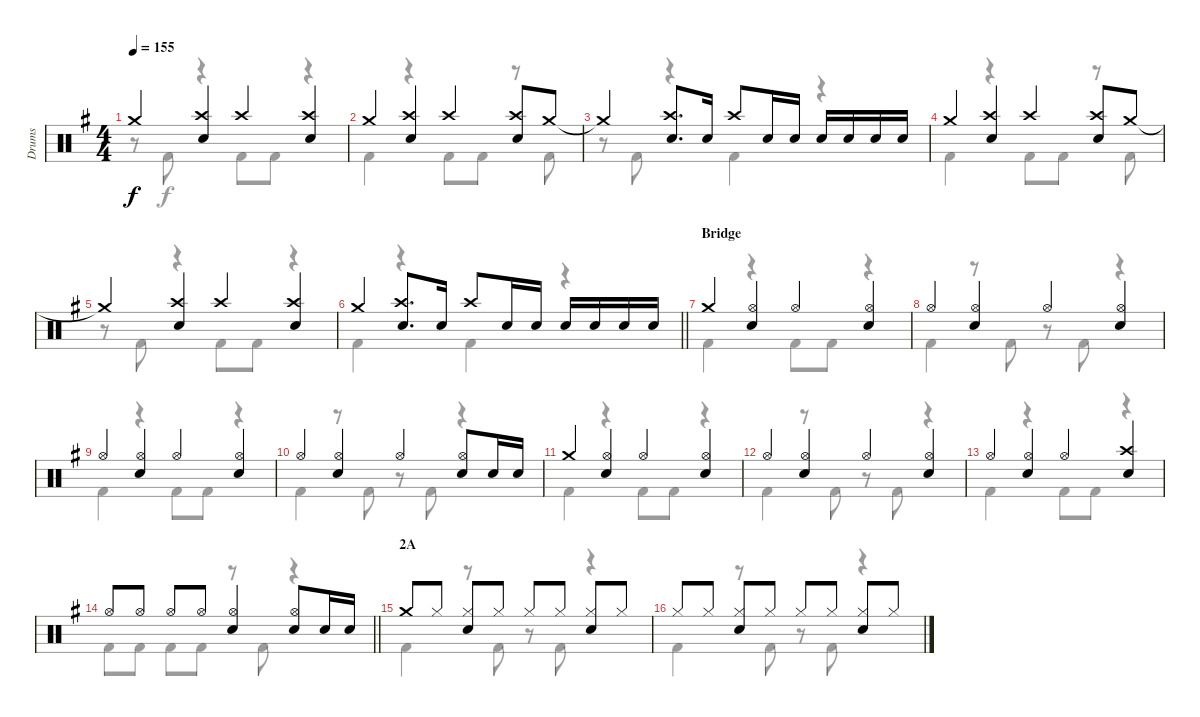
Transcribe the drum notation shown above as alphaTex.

\track ("Drums" "Drums") {instrument percussion}
\staff {score}
\articulation defaults
\voice
\ts (4 4)
\tempo 155
\clef neutral
\ks g "Crash medium (hit)"{t}.4{dy f}
("Crash high (hit)" "Electric Snare (hit)").4 "Crash high (hit)".4 ("Crash high (hit)" "Electric Snare (hit)").4 |
"Crash medium (hit)".4 ("Crash high (hit)" "Electric Snare (hit)").4 "Crash high (hit)".4 ("Crash high (hit)" "Electric Snare (hit)").8 "Crash medium (hit)".8 |
"Crash medium (hit)"{t}.4 ("Crash high (hit)" "Electric Snare (hit)").8{d} "Electric Snare (hit)".16 "Crash high (hit)".8 "Electric Snare (hit)".16 "Electric Snare (hit)".16 "Electric Snare (hit)".16 "Electric Snare (hit)".16 "Electric Snare (hit)".16 "Electric Snare (hit)".16 |
"Crash medium (hit)".4 ("Crash high (hit)" "Electric Snare (hit)").4 "Crash high (hit)".4 ("Crash high (hit)" "Electric Snare (hit)").8 "Crash medium (hit)".8 |
"Crash medium (hit)"{t}.4 ("Crash high (hit)" "Electric Snare (hit)").4 "Crash high (hit)".4 ("Crash high (hit)" "Electric Snare (hit)").4 |
\barLineRight lightlight "Crash medium (hit)".4
("Crash high (hit)" "Electric Snare (hit)").8{d} "Electric Snare (hit)".16 "Crash high (hit)".8 "Electric Snare (hit)".16 "Electric Snare (hit)".16 "Electric Snare (hit)".16 "Electric Snare (hit)".16 "Electric Snare (hit)".16 "Electric Snare (hit)".16 |
\section ("" "Bridge")
"Crash medium (hit)".4 ("Hi-Hat (open)" "Electric Snare (hit)").4 "Hi-Hat (open)".4 ("Hi-Hat (open)" "Electric Snare (hit)").4 |
"Hi-Hat (open)".4 ("Hi-Hat (open)" "Electric Snare (hit)").4 "Hi-Hat (open)".4 ("Hi-Hat (open)" "Electric Snare (hit)").4 |
"Hi-Hat (open)".4 ("Hi-Hat (open)" "Electric Snare (hit)").4 "Hi-Hat (open)".4 ("Hi-Hat (open)" "Electric Snare (hit)").4 |
"Hi-Hat (open)".4 ("Hi-Hat (open)" "Electric Snare (hit)").4 "Hi-Hat (open)".4 ("Hi-Hat (open)" "Electric Snare (hit)").8 "Electric Snare (hit)".16 "Electric Snare (hit)".16 |
"Crash medium (hit)".4 ("Hi-Hat (open)" "Electric Snare (hit)").4 "Hi-Hat (open)".4 ("Hi-Hat (open)" "Electric Snare (hit)").4 |
"Hi-Hat (open)".4 ("Hi-Hat (open)" "Electric Snare (hit)").4 "Hi-Hat (open)".4 ("Hi-Hat (open)" "Electric Snare (hit)").4 |
"Hi-Hat (open)".4 ("Hi-Hat (open)" "Electric Snare (hit)").4 "Hi-Hat (open)".4 ("Crash high (hit)" "Electric Snare (hit)").4 |
\barLineRight lightlight "Hi-Hat (open)".8 "Hi-Hat (open)".8 "Hi-Hat (open)".8 "Hi-Hat (open)".8
("Hi-Hat (open)" "Electric Snare (hit)").4 ("Hi-Hat (open)" "Electric Snare (hit)").8 "Electric Snare (hit)".16 "Electric Snare (hit)".16 |
\section ("" "2A")
"Crash medium (hit)".8 "Hi-Hat (closed)".8 ("Hi-Hat (closed)" "Electric Snare (hit)").8 "Hi-Hat (closed)".8 "Hi-Hat (closed)".8 "Hi-Hat (closed)".8 ("Hi-Hat (closed)" "Electric Snare (hit)").8 "Hi-Hat (closed)".8 |
"Hi-Hat (closed)".8 "Hi-Hat (closed)".8 ("Hi-Hat (closed)" "Electric Snare (hit)").8 "Hi-Hat (closed)".8 "Hi-Hat (closed)".8 "Hi-Hat (closed)".8 ("Hi-Hat (closed)" "Electric Snare (hit)").8 "Hi-Hat (closed)".8
\voice
\clef neutral
\ottava regular
\simile none
\ks g
r.8{dy f} "Kick (hit) 2".8 r.4 "Kick (hit) 2".8 "Kick (hit) 2".8 r.4 |
"Kick (hit) 2".4 r.4 "Kick (hit) 2".8 "Kick (hit) 2".8 r.8 "Kick (hit) 2".8 |
r.8 "Kick (hit) 2".8 r.4 "Kick (hit) 2".4 r.4 |
"Kick (hit) 2".4 r.4 "Kick (hit) 2".8 "Kick (hit) 2".8 r.8 "Kick (hit) 2".8 |
r.8 "Kick (hit) 2".8 r.4 "Kick (hit) 2".8 "Kick (hit) 2".8 r.4 |
\barLineRight lightlight "Kick (hit) 2".4
r.4 "Kick (hit) 2".4 r.4 |
"Kick (hit) 2".4 r.4 "Kick (hit) 2".8 "Kick (hit) 2".8 r.4 |
"Kick (hit) 2".4 r.8 "Kick (hit) 2".8 r.8 "Kick (hit) 2".8 r.4 |
"Kick (hit) 2".4 r.4 "Kick (hit) 2".8 "Kick (hit) 2".8 r.4 |
"Kick (hit) 2".4 r.8 "Kick (hit) 2".8 r.8 "Kick (hit) 2".8 r.4 |
"Kick (hit) 2".4 r.4 "Kick (hit) 2".8 "Kick (hit) 2".8 r.4 |
"Kick (hit) 2".4 r.8 "Kick (hit) 2".8 r.8 "Kick (hit) 2".8 r.4 |
"Kick (hit) 2".4 r.4 "Kick (hit) 2".8 "Kick (hit) 2".8 r.4 |
\barLineRight lightlight "Kick (hit) 2".8 "Kick (hit) 2".8 "Kick (hit) 2".8 "Kick (hit) 2".8
r.8 "Kick (hit) 2".8 r.4 |
"Kick (hit) 2".4 r.8 "Kick (hit) 2".8 r.8 "Kick (hit) 2".8 r.4 |
"Kick (hit) 2".4 r.8 "Kick (hit) 2".8 r.8 "Kick (hit) 2".8 r.4
